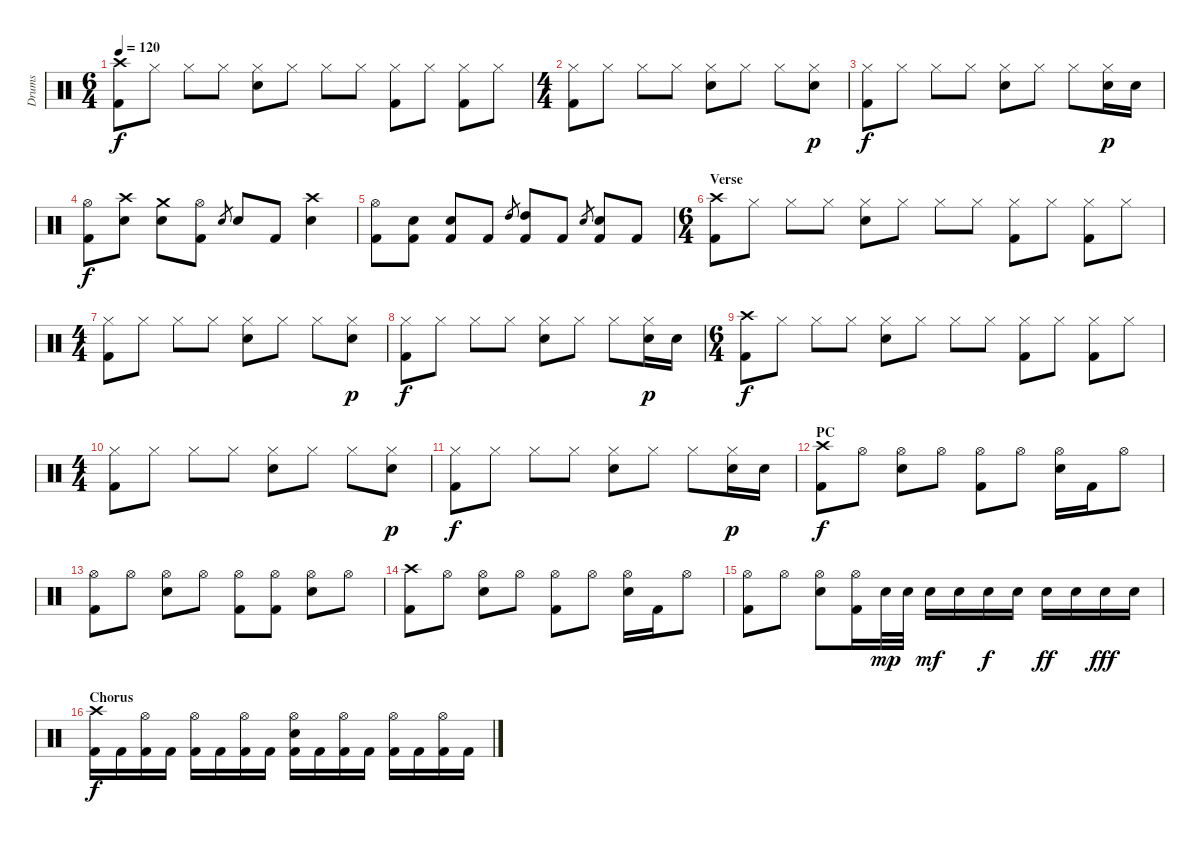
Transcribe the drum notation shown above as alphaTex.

\track ("Drums" "Drums") {instrument percussion}
\staff {score}
\articulation defaults
\ts (6 4)
\tempo 120
\clef neutral
\ks c
("Crash high (hit)" "Kick (hit) 2").8{dy f} "Hi-Hat (closed)".8 "Hi-Hat (closed)".8 "Hi-Hat (closed)".8 ("Hi-Hat (closed)" "Electric Snare (hit)").8 "Hi-Hat (closed)".8 "Hi-Hat (closed)".8 "Hi-Hat (closed)".8 ("Hi-Hat (closed)" "Kick (hit) 2").8 "Hi-Hat (closed)".8 ("Hi-Hat (closed)" "Kick (hit) 2").8 "Hi-Hat (closed)".8 |
\ts (4 4)
("Hi-Hat (closed)" "Kick (hit) 2").8 "Hi-Hat (closed)".8 "Hi-Hat (closed)".8 "Hi-Hat (closed)".8 ("Hi-Hat (closed)" "Electric Snare (hit)").8 "Hi-Hat (closed)".8 "Hi-Hat (closed)".8 ("Hi-Hat (closed)" "Electric Snare (hit)").8{dy p} |
("Hi-Hat (closed)" "Kick (hit) 2").8{dy f} "Hi-Hat (closed)".8 "Hi-Hat (closed)".8 "Hi-Hat (closed)".8 ("Hi-Hat (closed)" "Electric Snare (hit)").8 "Hi-Hat (closed)".8 "Hi-Hat (closed)".8 ("Hi-Hat (closed)" "Electric Snare (hit)").16{dy p} "Electric Snare (hit)".16 |
\section ("" "")
("Hi-Hat (open)" "Kick (hit) 2").8{dy f} ("Crash high (hit)" "Electric Snare (hit)").8 ("Crash medium (hit)" "Electric Snare (hit)").8 ("Hi-Hat (open)" "Kick (hit) 2").8 "Electric Snare (hit)".8{gr} "Electric Snare (hit)".8 "Kick (hit) 2".8 ("Crash high (hit)" "Electric Snare (hit)").4 |
("Hi-Hat (open)" "Kick (hit) 2").8 ("Electric Snare (hit)" "Kick (hit) 2").8 ("Electric Snare (hit)" "Kick (hit) 2").8 "Kick (hit) 2".8 "High Tom (hit)".8{gr} ("High Tom (hit)" "Kick (hit) 2").8 "Kick (hit) 2".8 "Electric Snare (hit)".8{gr} ("Electric Snare (hit)" "Kick (hit) 2").8 "Kick (hit) 2".8 |
\ts (6 4)
\section ("" "Verse")
("Crash high (hit)" "Kick (hit) 2").8 "Hi-Hat (closed)".8 "Hi-Hat (closed)".8 "Hi-Hat (closed)".8 ("Hi-Hat (closed)" "Electric Snare (hit)").8 "Hi-Hat (closed)".8 "Hi-Hat (closed)".8 "Hi-Hat (closed)".8 ("Hi-Hat (closed)" "Kick (hit) 2").8 "Hi-Hat (closed)".8 ("Hi-Hat (closed)" "Kick (hit) 2").8 "Hi-Hat (closed)".8 |
\ts (4 4)
("Hi-Hat (closed)" "Kick (hit) 2").8 "Hi-Hat (closed)".8 "Hi-Hat (closed)".8 "Hi-Hat (closed)".8 ("Hi-Hat (closed)" "Electric Snare (hit)").8 "Hi-Hat (closed)".8 "Hi-Hat (closed)".8 ("Hi-Hat (closed)" "Electric Snare (hit)").8{dy p} |
("Hi-Hat (closed)" "Kick (hit) 2").8{dy f} "Hi-Hat (closed)".8 "Hi-Hat (closed)".8 "Hi-Hat (closed)".8 ("Hi-Hat (closed)" "Electric Snare (hit)").8 "Hi-Hat (closed)".8 "Hi-Hat (closed)".8 ("Hi-Hat (closed)" "Electric Snare (hit)").16{dy p} "Electric Snare (hit)".16 |
\ts (6 4)
("Crash high (hit)" "Kick (hit) 2").8{dy f} "Hi-Hat (closed)".8 "Hi-Hat (closed)".8 "Hi-Hat (closed)".8 ("Hi-Hat (closed)" "Electric Snare (hit)").8 "Hi-Hat (closed)".8 "Hi-Hat (closed)".8 "Hi-Hat (closed)".8 ("Hi-Hat (closed)" "Kick (hit) 2").8 "Hi-Hat (closed)".8 ("Hi-Hat (closed)" "Kick (hit) 2").8 "Hi-Hat (closed)".8 |
\ts (4 4)
("Hi-Hat (closed)" "Kick (hit) 2").8 "Hi-Hat (closed)".8 "Hi-Hat (closed)".8 "Hi-Hat (closed)".8 ("Hi-Hat (closed)" "Electric Snare (hit)").8 "Hi-Hat (closed)".8 "Hi-Hat (closed)".8 ("Hi-Hat (closed)" "Electric Snare (hit)").8{dy p} |
("Hi-Hat (closed)" "Kick (hit) 2").8{dy f} "Hi-Hat (closed)".8 "Hi-Hat (closed)".8 "Hi-Hat (closed)".8 ("Hi-Hat (closed)" "Electric Snare (hit)").8 "Hi-Hat (closed)".8 "Hi-Hat (closed)".8 ("Hi-Hat (closed)" "Electric Snare (hit)").16{dy p} "Electric Snare (hit)".16 |
\section ("" "PC")
("Crash high (hit)" "Kick (hit) 2").8{dy f} "Hi-Hat (open)".8 ("Hi-Hat (open)" "Electric Snare (hit)").8 "Hi-Hat (open)".8 ("Hi-Hat (open)" "Kick (hit) 2").8 "Hi-Hat (open)".8 ("Hi-Hat (open)" "Electric Snare (hit)").16 "Kick (hit) 2".16 "Hi-Hat (open)".8 |
("Hi-Hat (open)" "Kick (hit) 2").8 "Hi-Hat (open)".8 ("Hi-Hat (open)" "Electric Snare (hit)").8 "Hi-Hat (open)".8 ("Hi-Hat (open)" "Kick (hit) 2").8 ("Hi-Hat (open)" "Kick (hit) 2").8 ("Hi-Hat (open)" "Electric Snare (hit)").8 "Hi-Hat (open)".8 |
("Crash high (hit)" "Kick (hit) 2").8 "Hi-Hat (open)".8 ("Hi-Hat (open)" "Electric Snare (hit)").8 "Hi-Hat (open)".8 ("Hi-Hat (open)" "Kick (hit) 2").8 "Hi-Hat (open)".8 ("Hi-Hat (open)" "Electric Snare (hit)").16 "Kick (hit) 2".16 "Hi-Hat (open)".8 |
("Hi-Hat (open)" "Kick (hit) 2").8 "Hi-Hat (open)".8 ("Hi-Hat (open)" "Electric Snare (hit)").8 ("Hi-Hat (open)" "Kick (hit) 2").16 "Electric Snare (hit)".32{dy mp} "Electric Snare (hit)".32 "Electric Snare (hit)".16{dy mf} "Electric Snare (hit)".16 "Electric Snare (hit)".16{dy f} "Electric Snare (hit)".16 "Electric Snare (hit)".16{dy ff} "Electric Snare (hit)".16 "Electric Snare (hit)".16{dy fff} "Electric Snare (hit)".16 |
\section ("" "Chorus")
("Crash high (hit)" "Kick (hit) 2").16{dy f} "Kick (hit) 2".16 ("Hi-Hat (open)" "Kick (hit) 2").16 "Kick (hit) 2".16 ("Hi-Hat (open)" "Kick (hit) 2").16 "Kick (hit) 2".16 ("Hi-Hat (open)" "Kick (hit) 2").16 "Kick (hit) 2".16 ("Hi-Hat (open)" "Electric Snare (hit)" "Kick (hit) 2").16 "Kick (hit) 2".16 ("Hi-Hat (open)" "Kick (hit) 2").16 "Kick (hit) 2".16 ("Hi-Hat (open)" "Kick (hit) 2").16 "Kick (hit) 2".16 ("Hi-Hat (open)" "Kick (hit) 2").16 "Kick (hit) 2".16
